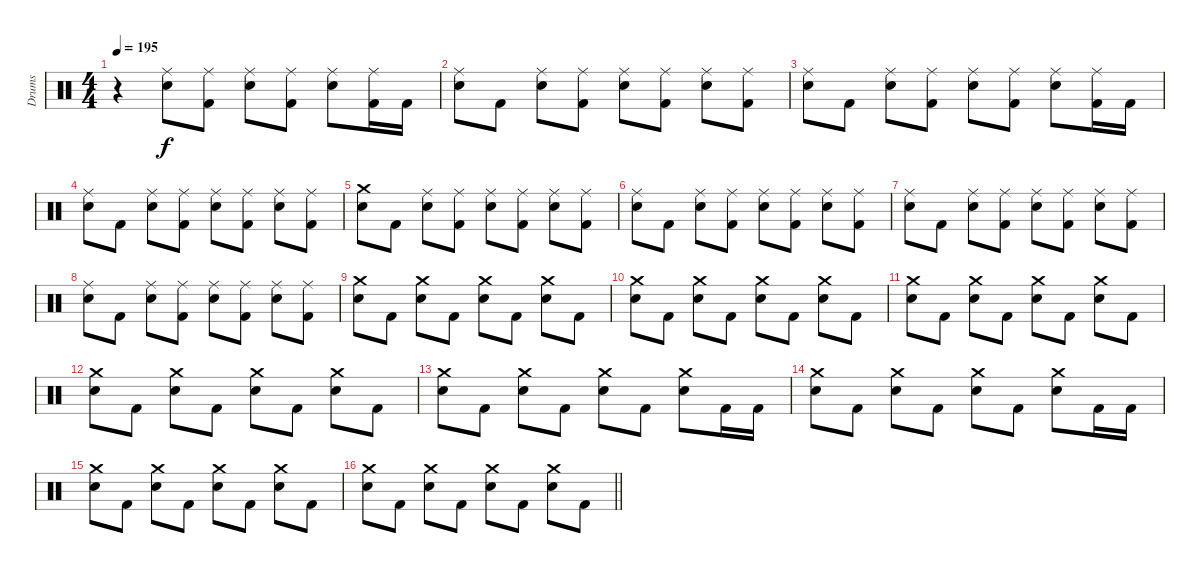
\track ("Drums" "Drums") {instrument percussion}
\staff {score}
\articulation defaults
\ts (4 4)
\section ("" "")
\tempo 195
\clef neutral
\ks c
r.4{dy f} ("Ride (middle)" "Electric Snare (hit)").8 ("Ride (middle)" "Kick (hit) 2").8 ("Ride (middle)" "Electric Snare (hit)").8 ("Ride (middle)" "Kick (hit) 2").8 ("Ride (middle)" "Electric Snare (hit)").8 ("Ride (middle)" "Kick (hit) 2").16 "Kick (hit) 2".16 |
("Ride (middle)" "Electric Snare (hit)").8 "Kick (hit) 2".8 ("Ride (middle)" "Electric Snare (hit)").8 ("Ride (middle)" "Kick (hit) 2").8 ("Ride (middle)" "Electric Snare (hit)").8 ("Ride (middle)" "Kick (hit) 2").8 ("Ride (middle)" "Electric Snare (hit)").8 ("Ride (middle)" "Kick (hit) 2").8 |
("Ride (middle)" "Electric Snare (hit)").8 "Kick (hit) 2".8 ("Ride (middle)" "Electric Snare (hit)").8 ("Ride (middle)" "Kick (hit) 2").8 ("Ride (middle)" "Electric Snare (hit)").8 ("Ride (middle)" "Kick (hit) 2").8 ("Ride (middle)" "Electric Snare (hit)").8 ("Ride (middle)" "Kick (hit) 2").16 "Kick (hit) 2".16 |
("Ride (middle)" "Electric Snare (hit)").8 "Kick (hit) 2".8 ("Ride (middle)" "Electric Snare (hit)").8 ("Ride (middle)" "Kick (hit) 2").8 ("Ride (middle)" "Electric Snare (hit)").8 ("Ride (middle)" "Kick (hit) 2").8 ("Ride (middle)" "Electric Snare (hit)").8 ("Ride (middle)" "Kick (hit) 2").8 |
("Crash medium (hit)" "Electric Snare (hit)").8 "Kick (hit) 2".8 ("Ride (middle)" "Electric Snare (hit)").8 ("Ride (middle)" "Kick (hit) 2").8 ("Ride (middle)" "Electric Snare (hit)").8 ("Ride (middle)" "Kick (hit) 2").8 ("Ride (middle)" "Electric Snare (hit)").8 ("Ride (middle)" "Kick (hit) 2").8 |
("Ride (middle)" "Electric Snare (hit)").8 "Kick (hit) 2".8 ("Ride (middle)" "Electric Snare (hit)").8 ("Ride (middle)" "Kick (hit) 2").8 ("Ride (middle)" "Electric Snare (hit)").8 ("Ride (middle)" "Kick (hit) 2").8 ("Ride (middle)" "Electric Snare (hit)").8 ("Ride (middle)" "Kick (hit) 2").8 |
("Ride (middle)" "Electric Snare (hit)").8 "Kick (hit) 2".8 ("Ride (middle)" "Electric Snare (hit)").8 ("Ride (middle)" "Kick (hit) 2").8 ("Ride (middle)" "Electric Snare (hit)").8 ("Ride (middle)" "Kick (hit) 2").8 ("Ride (middle)" "Electric Snare (hit)").8 ("Ride (middle)" "Kick (hit) 2").8 |
("Ride (middle)" "Electric Snare (hit)").8 "Kick (hit) 2".8 ("Ride (middle)" "Electric Snare (hit)").8 ("Ride (middle)" "Kick (hit) 2").8 ("Ride (middle)" "Electric Snare (hit)").8 ("Ride (middle)" "Kick (hit) 2").8 ("Ride (middle)" "Electric Snare (hit)").8 ("Ride (middle)" "Kick (hit) 2").8 |
("Crash medium (hit)" "Electric Snare (hit)").8 "Kick (hit) 2".8 ("Crash medium (hit)" "Electric Snare (hit)").8 "Kick (hit) 2".8 ("Crash medium (hit)" "Electric Snare (hit)").8 "Kick (hit) 2".8 ("Crash medium (hit)" "Electric Snare (hit)").8 "Kick (hit) 2".8 |
("Crash medium (hit)" "Electric Snare (hit)").8 "Kick (hit) 2".8 ("Crash medium (hit)" "Electric Snare (hit)").8 "Kick (hit) 2".8 ("Crash medium (hit)" "Electric Snare (hit)").8 "Kick (hit) 2".8 ("Crash medium (hit)" "Electric Snare (hit)").8 "Kick (hit) 2".8 |
("Crash medium (hit)" "Electric Snare (hit)").8 "Kick (hit) 2".8 ("Crash medium (hit)" "Electric Snare (hit)").8 "Kick (hit) 2".8 ("Crash medium (hit)" "Electric Snare (hit)").8 "Kick (hit) 2".8 ("Crash medium (hit)" "Electric Snare (hit)").8 "Kick (hit) 2".8 |
("Crash medium (hit)" "Electric Snare (hit)").8 "Kick (hit) 2".8 ("Crash medium (hit)" "Electric Snare (hit)").8 "Kick (hit) 2".8 ("Crash medium (hit)" "Electric Snare (hit)").8 "Kick (hit) 2".8 ("Crash medium (hit)" "Electric Snare (hit)").8 "Kick (hit) 2".8 |
("Crash medium (hit)" "Electric Snare (hit)").8 "Kick (hit) 2".8 ("Crash medium (hit)" "Electric Snare (hit)").8 "Kick (hit) 2".8 ("Crash medium (hit)" "Electric Snare (hit)").8 "Kick (hit) 2".8 ("Crash medium (hit)" "Electric Snare (hit)").8 "Kick (hit) 2".16 "Kick (hit) 2".16 |
("Crash medium (hit)" "Electric Snare (hit)").8 "Kick (hit) 2".8 ("Crash medium (hit)" "Electric Snare (hit)").8 "Kick (hit) 2".8 ("Crash medium (hit)" "Electric Snare (hit)").8 "Kick (hit) 2".8 ("Crash medium (hit)" "Electric Snare (hit)").8 "Kick (hit) 2".16 "Kick (hit) 2".16 |
("Crash medium (hit)" "Electric Snare (hit)").8 "Kick (hit) 2".8 ("Crash medium (hit)" "Electric Snare (hit)").8 "Kick (hit) 2".8 ("Crash medium (hit)" "Electric Snare (hit)").8 "Kick (hit) 2".8 ("Crash medium (hit)" "Electric Snare (hit)").8 "Kick (hit) 2".8 |
\barLineRight lightlight
("Crash medium (hit)" "Electric Snare (hit)").8 "Kick (hit) 2".8 ("Crash medium (hit)" "Electric Snare (hit)").8 "Kick (hit) 2".8 ("Crash medium (hit)" "Electric Snare (hit)").8 "Kick (hit) 2".8 ("Crash medium (hit)" "Electric Snare (hit)").8 "Kick (hit) 2".8
